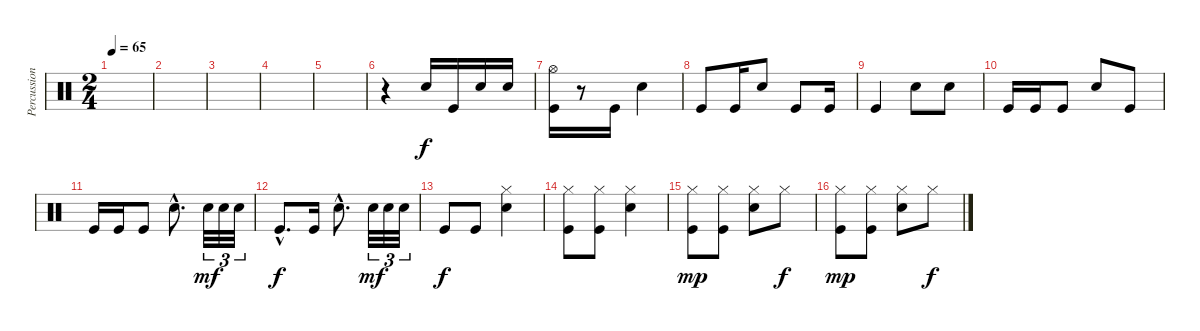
\track ("Percussions" "Percussion") {instrument percussion}
\staff {score}
\articulation defaults
\ts (2 4)
\tempo 65
\clef neutral
\ks c
|
|
|
|
|
r.4 "Electric Snare (hit)".16 "Kick (hit)".16 "Electric Snare (hit)".16 "Electric Snare (hit)".16 |
("Hi-Hat (open)" "Kick (hit)").16 r.8 "Kick (hit)".16 "Electric Snare (hit)".4 |
"Kick (hit)".8 "Kick (hit)".16 "Electric Snare (hit)".8 "Kick (hit)".8 "Kick (hit)".16 |
"Kick (hit)".4 "Electric Snare (hit)".8 "Electric Snare (hit)".8 |
"Kick (hit)".16 "Kick (hit)".16 "Kick (hit)".8 "Electric Snare (hit)".8 "Kick (hit)".8 |
"Kick (hit)".16 "Kick (hit)".16 "Kick (hit)".8 "Electric Snare (hit)"{hac}.8{d} "Electric Snare (hit)".32{tu (3 2) dy mf} "Electric Snare (hit)".32{tu (3 2)} "Electric Snare (hit)".32{tu (3 2)} |
"Kick (hit)"{hac}.8{d dy f} "Kick (hit)".16 "Electric Snare (hit)"{hac}.8{d} "Electric Snare (hit)".32{tu (3 2) dy mf} "Electric Snare (hit)".32{tu (3 2)} "Electric Snare (hit)".32{tu (3 2)} |
"Kick (hit)".8{dy f} "Kick (hit)".8 ("Hi-Hat (closed)" "Electric Snare (hit)").4 |
("Hi-Hat (closed)" "Kick (hit)").8 ("Hi-Hat (closed)" "Kick (hit)").8 ("Hi-Hat (closed)" "Electric Snare (hit)").4 |
("Hi-Hat (closed)" "Kick (hit)").8{dy mp} ("Hi-Hat (closed)" "Kick (hit)").8 ("Hi-Hat (closed)" "Electric Snare (hit)").8 "Hi-Hat (closed)".8{dy f} |
("Hi-Hat (closed)" "Kick (hit)").8{dy mp} ("Hi-Hat (closed)" "Kick (hit)").8 ("Hi-Hat (closed)" "Electric Snare (hit)").8 "Hi-Hat (closed)".8{dy f}
